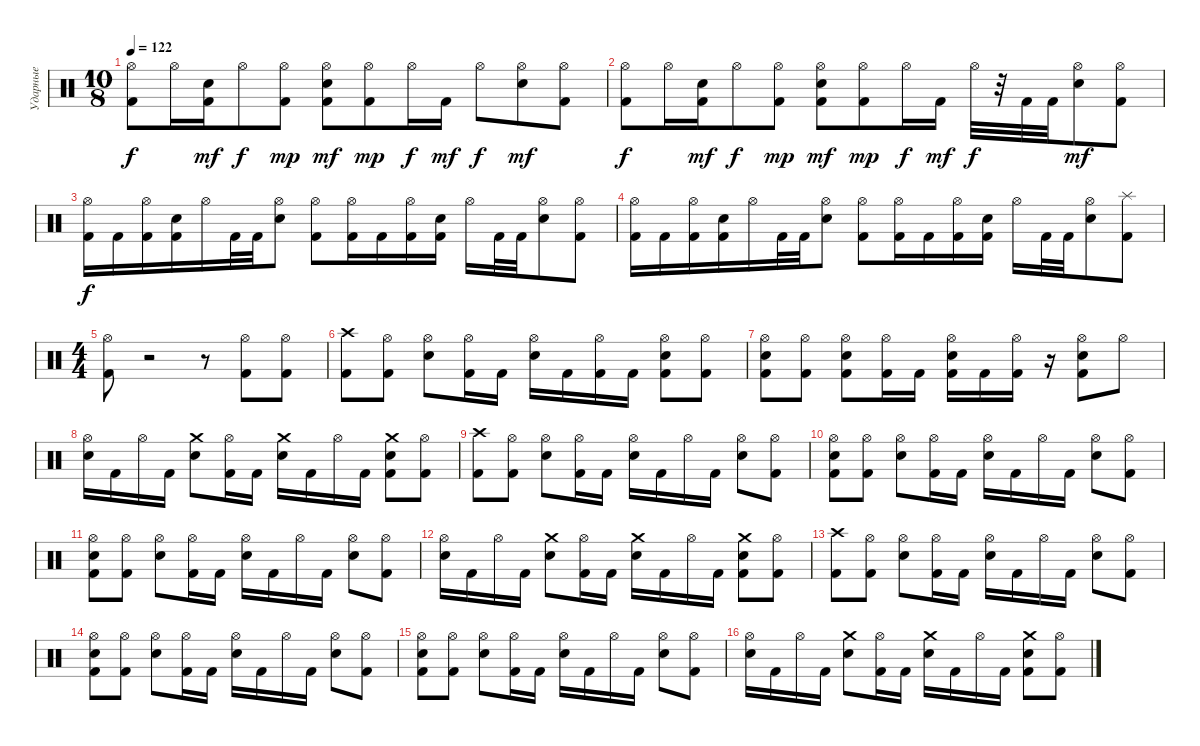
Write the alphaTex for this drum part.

\track ("Ударные" "Ударные") {instrument percussion}
\staff {score}
\articulation defaults
\ts (10 8)
\tempo 122
\clef neutral
\ks c
("Hi-Hat (open)" "Kick (hit) 2").8{dy f} "Hi-Hat (open)".16 ("Kick (hit) 2" "Snare (hit) 2").16{dy mf} "Hi-Hat (open)".8{dy f} ("Hi-Hat (open)" "Kick (hit) 2").8{dy mp} ("Hi-Hat (open)" "Kick (hit) 2" "Snare (hit) 2").8{dy mf} ("Hi-Hat (open)" "Kick (hit) 2").8{dy mp} "Hi-Hat (open)".16{dy f} "Kick (hit) 2".16{dy mf} "Hi-Hat (open)".8{dy f} ("Hi-Hat (open)" "Snare (hit) 2").8{dy mf} ("Hi-Hat (open)" "Kick (hit) 2").8 |
("Hi-Hat (open)" "Kick (hit) 2").8{dy f} "Hi-Hat (open)".16 ("Kick (hit) 2" "Snare (hit) 2").16{dy mf} "Hi-Hat (open)".8{dy f} ("Hi-Hat (open)" "Kick (hit) 2").8{dy mp} ("Hi-Hat (open)" "Kick (hit) 2" "Snare (hit) 2").8{dy mf} ("Hi-Hat (open)" "Kick (hit) 2").8{dy mp} "Hi-Hat (open)".16{dy f} "Kick (hit) 2".16{dy mf} "Hi-Hat (open)".32{dy f} r.32 "Kick (hit) 2".32 "Kick (hit) 2".32 ("Hi-Hat (open)" "Snare (hit) 2").8{dy mf} ("Hi-Hat (open)" "Kick (hit) 2").8 |
("Hi-Hat (open)" "Kick (hit) 2").16{dy f} "Kick (hit) 2".16 ("Hi-Hat (open)" "Kick (hit) 2").16 ("Kick (hit) 2" "Snare (hit) 2").16 "Hi-Hat (open)".16 "Kick (hit) 2".32 "Kick (hit) 2".32 ("Snare (hit) 2" "Hi-Hat (open)").8 ("Hi-Hat (open)" "Kick (hit) 2").8 ("Hi-Hat (open)" "Kick (hit) 2").16 "Kick (hit) 2".16 ("Hi-Hat (open)" "Kick (hit) 2").16 ("Kick (hit) 2" "Snare (hit) 2").16 "Hi-Hat (open)".16 "Kick (hit) 2".32 "Kick (hit) 2".32 ("Snare (hit) 2" "Hi-Hat (open)").8 ("Hi-Hat (open)" "Kick (hit) 2").8 |
("Hi-Hat (open)" "Kick (hit) 2").16 "Kick (hit) 2".16 ("Hi-Hat (open)" "Kick (hit) 2").16 ("Kick (hit) 2" "Snare (hit) 2").16 "Hi-Hat (open)".16 "Kick (hit) 2".32 "Kick (hit) 2".32 ("Snare (hit) 2" "Hi-Hat (open)").8 ("Hi-Hat (open)" "Kick (hit) 2").8 ("Hi-Hat (open)" "Kick (hit) 2").16 "Kick (hit) 2".16 ("Hi-Hat (open)" "Kick (hit) 2").16 ("Kick (hit) 2" "Snare (hit) 2").16 "Hi-Hat (open)".16 "Kick (hit) 2".32 "Kick (hit) 2".32 ("Snare (hit) 2" "Hi-Hat (open)").8 ("Splash (hit)" "Kick (hit) 2").8 |
\ts (4 4)
("Kick (hit) 2" "Hi-Hat (open)").8 r.2 r.8 ("Kick (hit) 2" "Hi-Hat (open)").8 ("Kick (hit) 2" "Hi-Hat (open)").8 |
("Kick (hit) 2" "Crash high (hit)").8 ("Hi-Hat (open)" "Kick (hit) 2").8 ("Hi-Hat (open)" "Snare (hit) 2").8 ("Hi-Hat (open)" "Kick (hit) 2").16 "Kick (hit) 2".16 ("Hi-Hat (open)" "Snare (hit) 2").16 "Kick (hit) 2".16 ("Hi-Hat (open)" "Kick (hit) 2").16 "Kick (hit) 2".16 ("Kick (hit) 2" "Hi-Hat (open)" "Snare (hit) 2").8 ("Hi-Hat (open)" "Kick (hit) 2").8 |
("Snare (hit) 2" "Hi-Hat (open)" "Kick (hit) 2").8 ("Hi-Hat (open)" "Kick (hit) 2").8 ("Hi-Hat (open)" "Snare (hit) 2" "Kick (hit) 2").8 ("Hi-Hat (open)" "Kick (hit) 2").16 "Kick (hit) 2".16 ("Hi-Hat (open)" "Snare (hit) 2" "Kick (hit) 2").16 "Kick (hit) 2".16 ("Hi-Hat (open)" "Kick (hit) 2").16 r.16 ("Kick (hit) 2" "Hi-Hat (open)" "Snare (hit) 2").8 "Hi-Hat (open)".8 |
("Hi-Hat (open)" "Snare (hit) 2").16 "Kick (hit) 2".16 "Hi-Hat (open)".16 "Kick (hit) 2".16 ("Crash medium (hit)" "Snare (hit) 2").8 ("Hi-Hat (open)" "Kick (hit) 2").16 "Kick (hit) 2".16 ("Crash medium (hit)" "Snare (hit) 2").16 "Kick (hit) 2".16 "Hi-Hat (open)".16 "Kick (hit) 2".16 ("Crash medium (hit)" "Kick (hit) 2" "Snare (hit) 2").8 ("Hi-Hat (open)" "Kick (hit) 2").8 |
("Kick (hit) 2" "Crash high (hit)").8 ("Hi-Hat (open)" "Kick (hit) 2").8 ("Hi-Hat (open)" "Snare (hit) 2").8 ("Hi-Hat (open)" "Kick (hit) 2").16 "Kick (hit) 2".16 ("Hi-Hat (open)" "Snare (hit) 2").16 "Kick (hit) 2".16 "Hi-Hat (open)".16 "Kick (hit) 2".16 ("Hi-Hat (open)" "Snare (hit) 2").8 ("Hi-Hat (open)" "Kick (hit) 2").8 |
("Snare (hit) 2" "Hi-Hat (open)" "Kick (hit) 2").8 ("Hi-Hat (open)" "Kick (hit) 2").8 ("Hi-Hat (open)" "Snare (hit) 2").8 ("Hi-Hat (open)" "Kick (hit) 2").16 "Kick (hit) 2".16 ("Hi-Hat (open)" "Snare (hit) 2").16 "Kick (hit) 2".16 "Hi-Hat (open)".16 "Kick (hit) 2".16 ("Hi-Hat (open)" "Snare (hit) 2").8 ("Hi-Hat (open)" "Kick (hit) 2").8 |
("Snare (hit) 2" "Hi-Hat (open)" "Kick (hit) 2").8 ("Hi-Hat (open)" "Kick (hit) 2").8 ("Hi-Hat (open)" "Snare (hit) 2").8 ("Hi-Hat (open)" "Kick (hit) 2").16 "Kick (hit) 2".16 ("Hi-Hat (open)" "Snare (hit) 2").16 "Kick (hit) 2".16 "Hi-Hat (open)".16 "Kick (hit) 2".16 ("Hi-Hat (open)" "Snare (hit) 2").8 ("Hi-Hat (open)" "Kick (hit) 2").8 |
("Hi-Hat (open)" "Snare (hit) 2").16 "Kick (hit) 2".16 "Hi-Hat (open)".16 "Kick (hit) 2".16 ("Crash medium (hit)" "Snare (hit) 2").8 ("Hi-Hat (open)" "Kick (hit) 2").16 "Kick (hit) 2".16 ("Crash medium (hit)" "Snare (hit) 2").16 "Kick (hit) 2".16 "Hi-Hat (open)".16 "Kick (hit) 2".16 ("Crash medium (hit)" "Kick (hit) 2" "Snare (hit) 2").8 ("Hi-Hat (open)" "Kick (hit) 2").8 |
("Kick (hit) 2" "Crash high (hit)").8 ("Hi-Hat (open)" "Kick (hit) 2").8 ("Hi-Hat (open)" "Snare (hit) 2").8 ("Hi-Hat (open)" "Kick (hit) 2").16 "Kick (hit) 2".16 ("Hi-Hat (open)" "Snare (hit) 2").16 "Kick (hit) 2".16 "Hi-Hat (open)".16 "Kick (hit) 2".16 ("Hi-Hat (open)" "Snare (hit) 2").8 ("Hi-Hat (open)" "Kick (hit) 2").8 |
("Snare (hit) 2" "Hi-Hat (open)" "Kick (hit) 2").8 ("Hi-Hat (open)" "Kick (hit) 2").8 ("Hi-Hat (open)" "Snare (hit) 2").8 ("Hi-Hat (open)" "Kick (hit) 2").16 "Kick (hit) 2".16 ("Hi-Hat (open)" "Snare (hit) 2").16 "Kick (hit) 2".16 "Hi-Hat (open)".16 "Kick (hit) 2".16 ("Hi-Hat (open)" "Snare (hit) 2").8 ("Hi-Hat (open)" "Kick (hit) 2").8 |
("Snare (hit) 2" "Hi-Hat (open)" "Kick (hit) 2").8 ("Hi-Hat (open)" "Kick (hit) 2").8 ("Hi-Hat (open)" "Snare (hit) 2").8 ("Hi-Hat (open)" "Kick (hit) 2").16 "Kick (hit) 2".16 ("Hi-Hat (open)" "Snare (hit) 2").16 "Kick (hit) 2".16 "Hi-Hat (open)".16 "Kick (hit) 2".16 ("Hi-Hat (open)" "Snare (hit) 2").8 ("Hi-Hat (open)" "Kick (hit) 2").8 |
("Hi-Hat (open)" "Snare (hit) 2").16 "Kick (hit) 2".16 "Hi-Hat (open)".16 "Kick (hit) 2".16 ("Crash medium (hit)" "Snare (hit) 2").8 ("Hi-Hat (open)" "Kick (hit) 2").16 "Kick (hit) 2".16 ("Crash medium (hit)" "Snare (hit) 2").16 "Kick (hit) 2".16 "Hi-Hat (open)".16 "Kick (hit) 2".16 ("Crash medium (hit)" "Kick (hit) 2" "Snare (hit) 2").8 ("Hi-Hat (open)" "Kick (hit) 2").8
